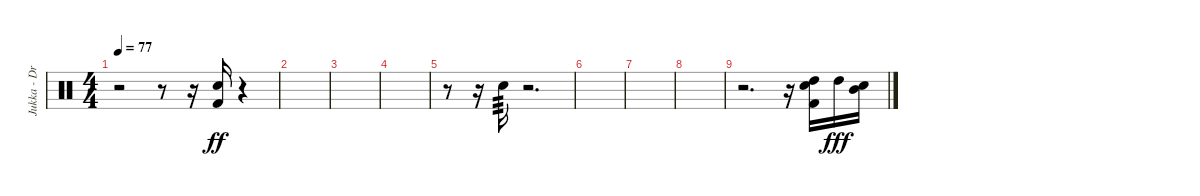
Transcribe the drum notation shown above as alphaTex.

\track ("Jukka - Drums" "Jukka - Dr") {instrument percussion}
\staff {score}
\articulation defaults
\ts (4 4)
\tempo 77
\clef neutral
\ks c
r.2{dy fff} r.8 r.16 ("Electric Snare (hit)" "Kick (hit) 2").16{dy ff} r.4 |
|
|
|
r.8 r.16 "Electric Snare (hit)".16{tp 3} r.2{d} |
|
|
|
r.2{d} r.16 ("High Tom (hit)" "Electric Snare (hit)" "Kick (hit) 2").16 "High Tom (hit)".16{dy fff} ("Mid Tom (hit)" "Electric Snare (hit)").16
